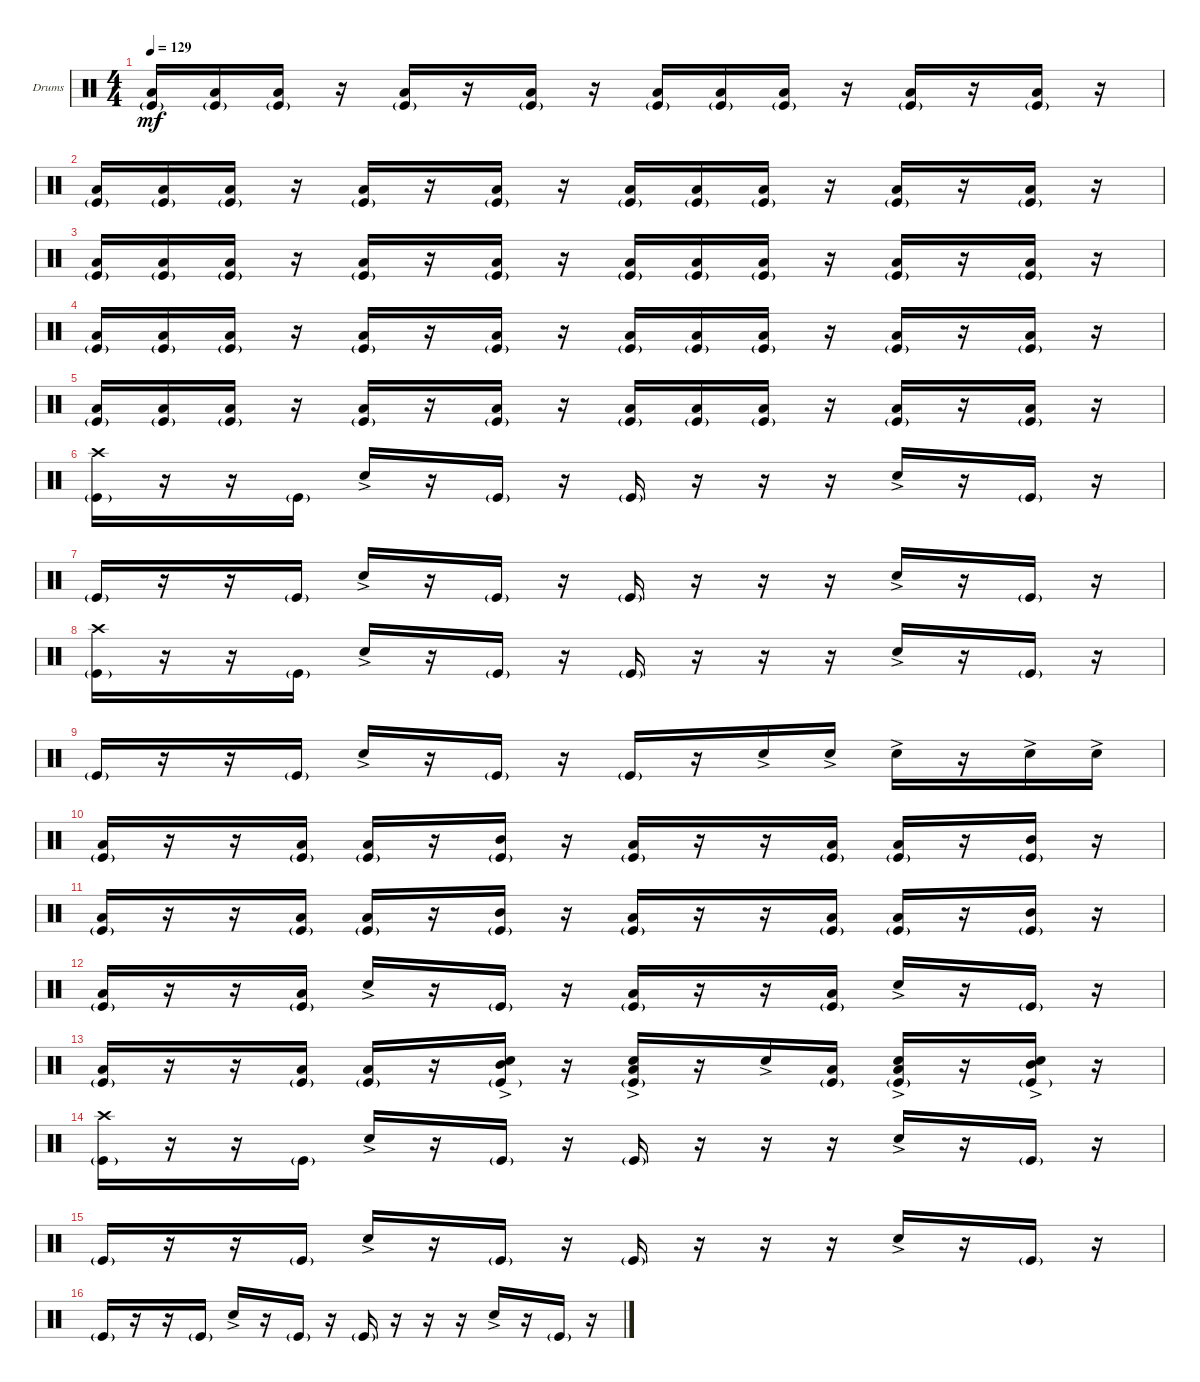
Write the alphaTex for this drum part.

\defaultSystemsLayout 4
\bracketExtendMode groupsimilarinstruments
\firstSystemTrackNameOrientation horizontal
\otherSystemsTrackNameOrientation horizontal
\track ("Drums" "Drums") {instrument percussion}
\staff {score}
\articulation defaults
\ts (4 4)
\tempo 129
\clef neutral
\ks c
("Kick (hit)"{g} "Low Tom (hit)").16{dy mf} ("Kick (hit)"{g} "Low Tom (hit)").16 ("Kick (hit)"{g} "Low Tom (hit)").16 r.16 ("Kick (hit)"{g} "Low Tom (hit)").16 r.16 ("Kick (hit)"{g} "Low Tom (hit)").16 r.16 ("Kick (hit)"{g} "Low Tom (hit)").16 ("Kick (hit)"{g} "Low Tom (hit)").16 ("Kick (hit)"{g} "Low Tom (hit)").16 r.16 ("Kick (hit)"{g} "Low Tom (hit)").16 r.16 ("Kick (hit)"{g} "Low Tom (hit)").16 r.16 |
("Kick (hit)"{g} "Low Tom (hit)").16 ("Kick (hit)"{g} "Low Tom (hit)").16 ("Kick (hit)"{g} "Low Tom (hit)").16 r.16 ("Kick (hit)"{g} "Low Tom (hit)").16 r.16 ("Kick (hit)"{g} "Low Tom (hit)").16 r.16 ("Kick (hit)"{g} "Low Tom (hit)").16 ("Kick (hit)"{g} "Low Tom (hit)").16 ("Kick (hit)"{g} "Low Tom (hit)").16 r.16 ("Kick (hit)"{g} "Low Tom (hit)").16 r.16 ("Kick (hit)"{g} "Low Tom (hit)").16 r.16 |
("Kick (hit)"{g} "Low Tom (hit)").16 ("Kick (hit)"{g} "Low Tom (hit)").16 ("Kick (hit)"{g} "Low Tom (hit)").16 r.16 ("Kick (hit)"{g} "Low Tom (hit)").16 r.16 ("Kick (hit)"{g} "Low Tom (hit)").16 r.16 ("Kick (hit)"{g} "Low Tom (hit)").16 ("Kick (hit)"{g} "Low Tom (hit)").16 ("Kick (hit)"{g} "Low Tom (hit)").16 r.16 ("Kick (hit)"{g} "Low Tom (hit)").16 r.16 ("Kick (hit)"{g} "Low Tom (hit)").16 r.16 |
("Kick (hit)"{g} "Low Tom (hit)").16 ("Kick (hit)"{g} "Low Tom (hit)").16 ("Kick (hit)"{g} "Low Tom (hit)").16 r.16 ("Kick (hit)"{g} "Low Tom (hit)").16 r.16 ("Kick (hit)"{g} "Low Tom (hit)").16 r.16 ("Kick (hit)"{g} "Low Tom (hit)").16 ("Kick (hit)"{g} "Low Tom (hit)").16 ("Kick (hit)"{g} "Low Tom (hit)").16 r.16 ("Kick (hit)"{g} "Low Tom (hit)").16 r.16 ("Kick (hit)"{g} "Low Tom (hit)").16 r.16 |
("Kick (hit)"{g} "Low Tom (hit)").16 ("Kick (hit)"{g} "Low Tom (hit)").16 ("Kick (hit)"{g} "Low Tom (hit)").16 r.16 ("Kick (hit)"{g} "Low Tom (hit)").16 r.16 ("Kick (hit)"{g} "Low Tom (hit)").16 r.16 ("Kick (hit)"{g} "Low Tom (hit)").16 ("Kick (hit)"{g} "Low Tom (hit)").16 ("Kick (hit)"{g} "Low Tom (hit)").16 r.16 ("Kick (hit)"{g} "Low Tom (hit)").16 r.16 ("Kick (hit)"{g} "Low Tom (hit)").16 r.16 |
("Kick (hit)"{g} "Crash high (hit)").16 r.16 r.16 "Kick (hit)"{g}.16 "Snare (hit) 2"{ac}.16 r.16 "Kick (hit)"{g}.16 r.16 "Kick (hit)"{g}.16 r.16 r.16 r.16 "Snare (hit) 2"{ac}.16 r.16 "Kick (hit)"{g}.16 r.16 |
"Kick (hit)"{g}.16 r.16 r.16 "Kick (hit)"{g}.16 "Snare (hit) 2"{ac}.16 r.16 "Kick (hit)"{g}.16 r.16 "Kick (hit)"{g}.16 r.16 r.16 r.16 "Snare (hit) 2"{ac}.16 r.16 "Kick (hit)"{g}.16 r.16 |
("Kick (hit)"{g} "Crash high (hit)").16 r.16 r.16 "Kick (hit)"{g}.16 "Snare (hit) 2"{ac}.16 r.16 "Kick (hit)"{g}.16 r.16 "Kick (hit)"{g}.16 r.16 r.16 r.16 "Snare (hit) 2"{ac}.16 r.16 "Kick (hit)"{g}.16 r.16 |
"Kick (hit)"{g}.16 r.16 r.16 "Kick (hit)"{g}.16 "Snare (hit) 2"{ac}.16 r.16 "Kick (hit)"{g}.16 r.16 "Kick (hit)"{g}.16 r.16 "Snare (hit) 2"{ac}.16 "Snare (hit) 2"{ac}.16 "Snare (hit) 2"{ac}.16 r.16 "Snare (hit) 2"{ac}.16 "Snare (hit) 2"{ac}.16 |
("Kick (hit)"{g} "Low Tom (hit)").16 r.16 r.16 ("Kick (hit)"{g} "Low Tom (hit)").16 ("Kick (hit)"{g} "Low Tom (hit)").16 r.16 ("Kick (hit)"{g} "Mid Tom (hit)").16 r.16 ("Kick (hit)"{g} "Low Tom (hit)").16 r.16 r.16 ("Kick (hit)"{g} "Low Tom (hit)").16 ("Kick (hit)"{g} "Low Tom (hit)").16 r.16 ("Kick (hit)"{g} "Mid Tom (hit)").16 r.16 |
("Kick (hit)"{g} "Low Tom (hit)").16 r.16 r.16 ("Kick (hit)"{g} "Low Tom (hit)").16 ("Kick (hit)"{g} "Low Tom (hit)").16 r.16 ("Kick (hit)"{g} "Mid Tom (hit)").16 r.16 ("Kick (hit)"{g} "Low Tom (hit)").16 r.16 r.16 ("Kick (hit)"{g} "Low Tom (hit)").16 ("Kick (hit)"{g} "Low Tom (hit)").16 r.16 ("Kick (hit)"{g} "Mid Tom (hit)").16 r.16 |
("Kick (hit)"{g} "Low Tom (hit)").16 r.16 r.16 ("Kick (hit)"{g} "Low Tom (hit)").16 "Snare (hit) 2"{ac}.16 r.16 "Kick (hit)"{g}.16 r.16 ("Kick (hit)"{g} "Low Tom (hit)").16 r.16 r.16 ("Kick (hit)"{g} "Low Tom (hit)").16 "Snare (hit) 2"{ac}.16 r.16 "Kick (hit)"{g}.16 r.16 |
("Kick (hit)"{g} "Low Tom (hit)").16 r.16 r.16 ("Kick (hit)"{g} "Low Tom (hit)").16 ("Kick (hit)"{g} "Low Tom (hit)").16 r.16 ("Kick (hit)"{g} "Mid Tom (hit)" "Snare (hit) 2"{ac}).16 r.16 ("Kick (hit)"{g} "Low Tom (hit)" "Snare (hit) 2"{ac}).16 r.16 "Snare (hit) 2"{ac}.16 ("Kick (hit)"{g} "Low Tom (hit)").16 ("Kick (hit)"{g} "Low Tom (hit)" "Snare (hit) 2"{ac}).16 r.16 ("Kick (hit)"{g} "Mid Tom (hit)" "Snare (hit) 2"{ac}).16 r.16 |
("Kick (hit)"{g} "Crash high (hit)").16 r.16 r.16 "Kick (hit)"{g}.16 "Snare (hit) 2"{ac}.16 r.16 "Kick (hit)"{g}.16 r.16 "Kick (hit)"{g}.16 r.16 r.16 r.16 "Snare (hit) 2"{ac}.16 r.16 "Kick (hit)"{g}.16 r.16 |
"Kick (hit)"{g}.16 r.16 r.16 "Kick (hit)"{g}.16 "Snare (hit) 2"{ac}.16 r.16 "Kick (hit)"{g}.16 r.16 "Kick (hit)"{g}.16 r.16 r.16 r.16 "Snare (hit) 2"{ac}.16 r.16 "Kick (hit)"{g}.16 r.16 |
"Kick (hit)"{g}.16 r.16 r.16 "Kick (hit)"{g}.16 "Snare (hit) 2"{ac}.16 r.16 "Kick (hit)"{g}.16 r.16 "Kick (hit)"{g}.16 r.16 r.16 r.16 "Snare (hit) 2"{ac}.16 r.16 "Kick (hit)"{g}.16 r.16
